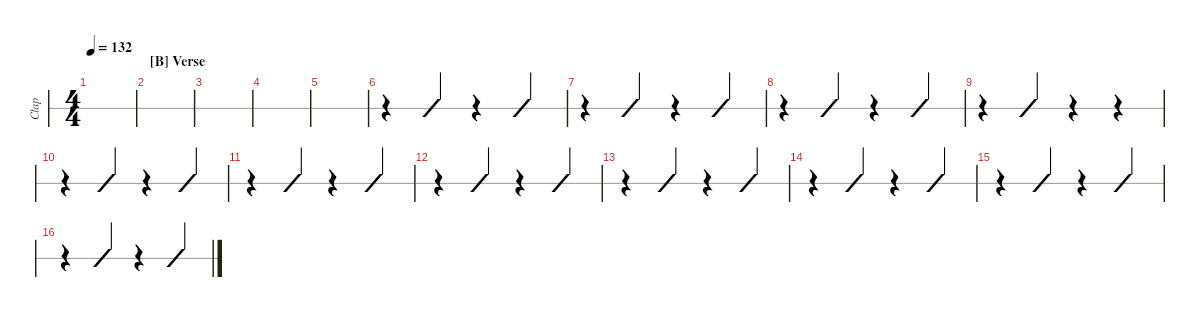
\defaultSystemsLayout 4
\hideDynamics
\bracketExtendMode nobrackets
\otherSystemsTrackNameOrientation horizontal
\track ("Hand Clap" "Clap") {instrument percussion}
\staff {slash}
\articulation defaults
\voice
\ts (4 4)
\tempo 132
\clef neutral
\ks eb
|
\section ("B" "Verse")
|
|
|
|
r.4 "Kick (hit)".4 r.4 "Kick (hit)".4 |
r.4 "Kick (hit)".4 r.4 "Kick (hit)".4 |
r.4 "Kick (hit)".4 r.4 "Kick (hit)".4 |
r.4 "Kick (hit)".4 r.4 r.4 |
r.4 "Kick (hit)".4 r.4 "Kick (hit)".4 |
r.4 "Kick (hit)".4 r.4 "Kick (hit)".4 |
r.4 "Kick (hit)".4 r.4 "Kick (hit)".4 |
r.4 "Kick (hit)".4 r.4 "Kick (hit)".4 |
r.4 "Kick (hit)".4 r.4 "Kick (hit)".4 |
r.4 "Kick (hit)".4 r.4 "Kick (hit)".4 |
r.4 "Kick (hit)".4 r.4 "Kick (hit)".4
\voice
\clef neutral
\ottava regular
\simile none
\ks eb
|
|
|
|
|
r.4 r.4 r.4 "Kick (hit)".4 |
|
|
|
|
|
|
|
|
|
